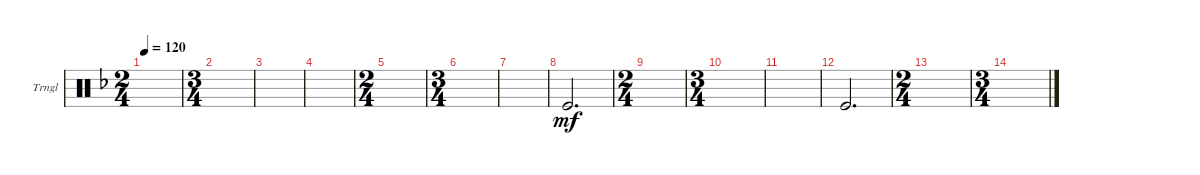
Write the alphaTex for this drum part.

\defaultSystemsLayout 4
\bracketExtendMode groupsimilarinstruments
\firstSystemTrackNameOrientation horizontal
\otherSystemsTrackNameOrientation horizontal
\track ("Triangle" "Trngl") {instrument percussion}
\staff {score}
\articulation defaults
\ts (2 4)
\tempo 120
\clef neutral
\ks f
|
\ts (3 4)
|
|
|
\ts (2 4)
|
\ts (3 4)
|
|
"Kick (hit)".2{d dy mf} |
\ts (2 4)
|
\ts (3 4)
|
|
"Kick (hit)".2{d} |
\ts (2 4)
|
\ts (3 4)
